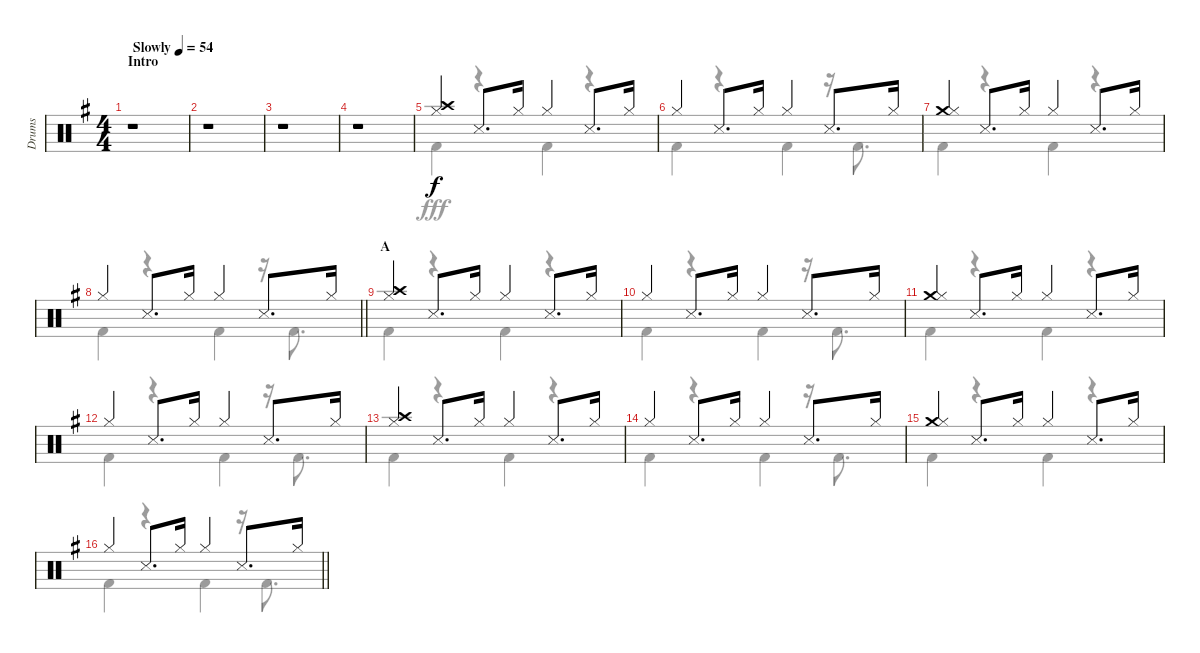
\track ("Drums" "Drums") {instrument percussion}
\staff {score}
\articulation defaults
\voice
\ts (4 4)
\section ("" "Intro")
\tempo (54 "Slowly")
\clef neutral
\ks g
r.1{dy f} |
r.1 |
r.1 |
r.1 |
("Crash high (hit)" "Hi-Hat (closed)").4 "Snare (side stick) 3".8{d} "Hi-Hat (closed)".16 "Hi-Hat (closed)".4 "Snare (side stick) 3".8{d} "Hi-Hat (closed)".16 |
"Hi-Hat (closed)".4 "Snare (side stick) 3".8{d} "Hi-Hat (closed)".16 "Hi-Hat (closed)".4 "Snare (side stick) 3".8{d} "Hi-Hat (closed)".16 |
("Crash medium (hit)" "Hi-Hat (closed)").4 "Snare (side stick) 3".8{d} "Hi-Hat (closed)".16 "Hi-Hat (closed)".4 "Snare (side stick) 3".8{d} "Hi-Hat (closed)".16 |
\barLineRight lightlight "Hi-Hat (closed)".4 "Snare (side stick) 3".8{d} "Hi-Hat (closed)".16 "Hi-Hat (closed)".4 "Snare (side stick) 3".8{d} "Hi-Hat (closed)".16
|
\section ("" "A")
("Crash high (hit)" "Hi-Hat (closed)").4 "Snare (side stick) 3".8{d} "Hi-Hat (closed)".16 "Hi-Hat (closed)".4 "Snare (side stick) 3".8{d} "Hi-Hat (closed)".16 |
"Hi-Hat (closed)".4 "Snare (side stick) 3".8{d} "Hi-Hat (closed)".16 "Hi-Hat (closed)".4 "Snare (side stick) 3".8{d} "Hi-Hat (closed)".16 |
("Crash medium (hit)" "Hi-Hat (closed)").4 "Snare (side stick) 3".8{d} "Hi-Hat (closed)".16 "Hi-Hat (closed)".4 "Snare (side stick) 3".8{d} "Hi-Hat (closed)".16 |
"Hi-Hat (closed)".4 "Snare (side stick) 3".8{d} "Hi-Hat (closed)".16 "Hi-Hat (closed)".4 "Snare (side stick) 3".8{d} "Hi-Hat (closed)".16 |
("Crash high (hit)" "Hi-Hat (closed)").4 "Snare (side stick) 3".8{d} "Hi-Hat (closed)".16 "Hi-Hat (closed)".4 "Snare (side stick) 3".8{d} "Hi-Hat (closed)".16 |
"Hi-Hat (closed)".4 "Snare (side stick) 3".8{d} "Hi-Hat (closed)".16 "Hi-Hat (closed)".4 "Snare (side stick) 3".8{d} "Hi-Hat (closed)".16 |
("Crash medium (hit)" "Hi-Hat (closed)").4 "Snare (side stick) 3".8{d} "Hi-Hat (closed)".16 "Hi-Hat (closed)".4 "Snare (side stick) 3".8{d} "Hi-Hat (closed)".16 |
\barLineRight lightlight "Hi-Hat (closed)".4 "Snare (side stick) 3".8{d} "Hi-Hat (closed)".16 "Hi-Hat (closed)".4 "Snare (side stick) 3".8{d} "Hi-Hat (closed)".16
\voice
\clef neutral
\ottava regular
\simile none
\ks g
r.1{dy fff} |
r.1 |
r.1 |
r.1 |
"Kick (hit) 2".4 r.4 "Kick (hit) 2".4 r.4 |
"Kick (hit) 2".4 r.4 "Kick (hit) 2".4 r.16 "Kick (hit) 2".8{d} |
"Kick (hit) 2".4 r.4 "Kick (hit) 2".4 r.4 |
\barLineRight lightlight "Kick (hit) 2".4
r.4 "Kick (hit) 2".4 r.16 "Kick (hit) 2".8{d} |
"Kick (hit) 2".4 r.4 "Kick (hit) 2".4 r.4 |
"Kick (hit) 2".4 r.4 "Kick (hit) 2".4 r.16 "Kick (hit) 2".8{d} |
"Kick (hit) 2".4 r.4 "Kick (hit) 2".4 r.4 |
"Kick (hit) 2".4 r.4 "Kick (hit) 2".4 r.16 "Kick (hit) 2".8{d} |
"Kick (hit) 2".4 r.4 "Kick (hit) 2".4 r.4 |
"Kick (hit) 2".4 r.4 "Kick (hit) 2".4 r.16 "Kick (hit) 2".8{d} |
"Kick (hit) 2".4 r.4 "Kick (hit) 2".4 r.4 |
\barLineRight lightlight "Kick (hit) 2".4
r.4 "Kick (hit) 2".4 r.16 "Kick (hit) 2".8{d}
